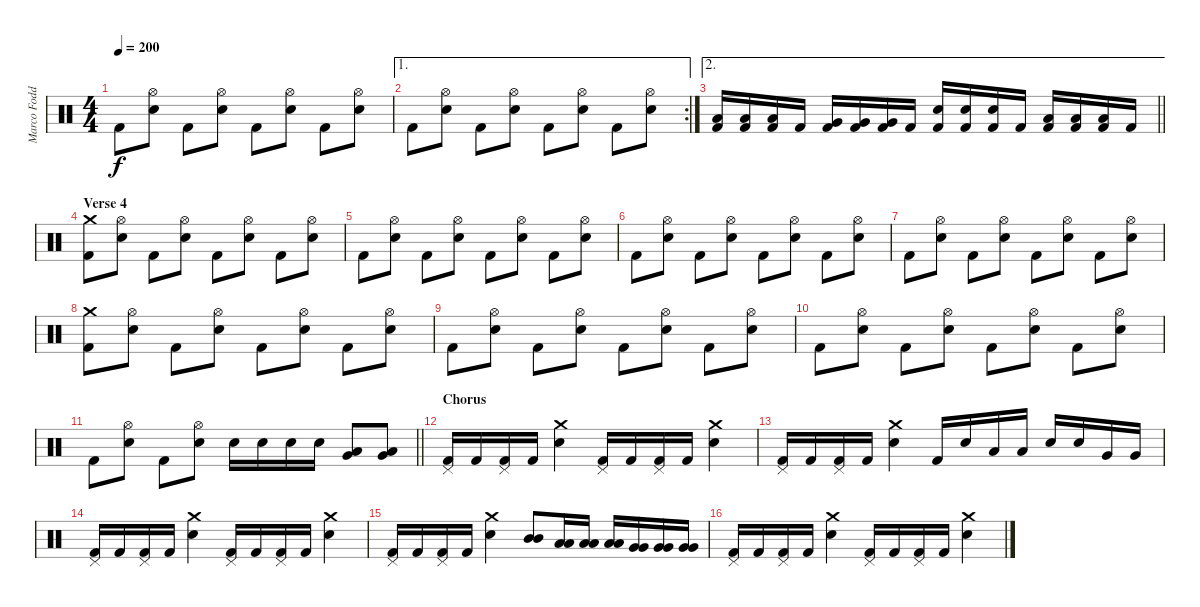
\track ("Marco Foddis " "Marco Fodd") {instrument percussion}
\staff {score}
\articulation defaults
\ts (4 4)
\tempo 200
\clef neutral
\ks c "Kick (hit) 2".8{dy f}
("Hi-Hat (open)" "Electric Snare (hit)").8 "Kick (hit) 2".8 ("Hi-Hat (open)" "Electric Snare (hit)").8 "Kick (hit) 2".8 ("Hi-Hat (open)" "Electric Snare (hit)").8 "Kick (hit) 2".8 ("Hi-Hat (open)" "Electric Snare (hit)").8 |
\ae 1
\rc 2 "Kick (hit) 2".8
("Hi-Hat (open)" "Electric Snare (hit)").8 "Kick (hit) 2".8 ("Hi-Hat (open)" "Electric Snare (hit)").8 "Kick (hit) 2".8 ("Hi-Hat (open)" "Electric Snare (hit)").8 "Kick (hit) 2".8 ("Hi-Hat (open)" "Electric Snare (hit)").8 |
\ae 2
\barLineRight lightlight
("Low Tom (hit)" "Kick (hit) 2").16 ("Low Tom (hit)" "Kick (hit) 2").16 ("Low Tom (hit)" "Kick (hit) 2").16 "Kick (hit) 2".16 ("Very Low Tom (hit)" "Kick (hit) 2").16 ("Very Low Tom (hit)" "Kick (hit) 2").16 ("Very Low Tom (hit)" "Kick (hit) 2").16 "Kick (hit) 2".16 ("Electric Snare (hit)" "Kick (hit) 2").16 ("Electric Snare (hit)" "Kick (hit) 2").16 ("Electric Snare (hit)" "Kick (hit) 2").16 "Kick (hit) 2".16 ("Low Floor Tom (hit)" "Kick (hit) 2").16 ("Low Floor Tom (hit)" "Kick (hit) 2").16 ("Low Floor Tom (hit)" "Kick (hit) 2").16 "Kick (hit) 2".16 |
\section ("" "Verse 4")
("Crash medium (hit)" "Kick (hit) 2").8 ("Hi-Hat (open)" "Electric Snare (hit)").8 "Kick (hit) 2".8 ("Hi-Hat (open)" "Electric Snare (hit)").8 "Kick (hit) 2".8 ("Hi-Hat (open)" "Electric Snare (hit)").8 "Kick (hit) 2".8 ("Hi-Hat (open)" "Electric Snare (hit)").8 |
"Kick (hit) 2".8 ("Hi-Hat (open)" "Electric Snare (hit)").8 "Kick (hit) 2".8 ("Hi-Hat (open)" "Electric Snare (hit)").8 "Kick (hit) 2".8 ("Hi-Hat (open)" "Electric Snare (hit)").8 "Kick (hit) 2".8 ("Hi-Hat (open)" "Electric Snare (hit)").8 |
"Kick (hit) 2".8 ("Hi-Hat (open)" "Electric Snare (hit)").8 "Kick (hit) 2".8 ("Hi-Hat (open)" "Electric Snare (hit)").8 "Kick (hit) 2".8 ("Hi-Hat (open)" "Electric Snare (hit)").8 "Kick (hit) 2".8 ("Hi-Hat (open)" "Electric Snare (hit)").8 |
"Kick (hit) 2".8 ("Hi-Hat (open)" "Electric Snare (hit)").8 "Kick (hit) 2".8 ("Hi-Hat (open)" "Electric Snare (hit)").8 "Kick (hit) 2".8 ("Hi-Hat (open)" "Electric Snare (hit)").8 "Kick (hit) 2".8 ("Hi-Hat (open)" "Electric Snare (hit)").8 |
("Crash medium (hit)" "Kick (hit) 2").8 ("Hi-Hat (open)" "Electric Snare (hit)").8 "Kick (hit) 2".8 ("Hi-Hat (open)" "Electric Snare (hit)").8 "Kick (hit) 2".8 ("Hi-Hat (open)" "Electric Snare (hit)").8 "Kick (hit) 2".8 ("Hi-Hat (open)" "Electric Snare (hit)").8 |
"Kick (hit) 2".8 ("Hi-Hat (open)" "Electric Snare (hit)").8 "Kick (hit) 2".8 ("Hi-Hat (open)" "Electric Snare (hit)").8 "Kick (hit) 2".8 ("Hi-Hat (open)" "Electric Snare (hit)").8 "Kick (hit) 2".8 ("Hi-Hat (open)" "Electric Snare (hit)").8 |
"Kick (hit) 2".8 ("Hi-Hat (open)" "Electric Snare (hit)").8 "Kick (hit) 2".8 ("Hi-Hat (open)" "Electric Snare (hit)").8 "Kick (hit) 2".8 ("Hi-Hat (open)" "Electric Snare (hit)").8 "Kick (hit) 2".8 ("Hi-Hat (open)" "Electric Snare (hit)").8 |
\barLineRight lightlight "Kick (hit) 2".8
("Hi-Hat (open)" "Electric Snare (hit)").8 "Kick (hit) 2".8 ("Hi-Hat (open)" "Electric Snare (hit)").8 "Electric Snare (hit)".16 "Electric Snare (hit)".16 "Electric Snare (hit)".16 "Electric Snare (hit)".16 ("Low Tom (hit)" "Very Low Tom (hit)").8 ("Low Tom (hit)" "Very Low Tom (hit)").8 |
\section ("" "Chorus")
("Pedal Hi-Hat (hit)" "Kick (hit) 2").16 "Kick (hit) 2".16 ("Pedal Hi-Hat (hit)" "Kick (hit) 2").16 "Kick (hit) 2".16 ("Crash medium (hit)" "Electric Snare (hit)").4 ("Pedal Hi-Hat (hit)" "Kick (hit) 2").16 "Kick (hit) 2".16 ("Pedal Hi-Hat (hit)" "Kick (hit) 2").16 "Kick (hit) 2".16 ("Crash medium (hit)" "Electric Snare (hit)").4 |
("Pedal Hi-Hat (hit)" "Kick (hit) 2").16 "Kick (hit) 2".16 ("Pedal Hi-Hat (hit)" "Kick (hit) 2").16 "Kick (hit) 2".16 ("Crash medium (hit)" "Electric Snare (hit)").4 "Kick (hit) 2".16 "Electric Snare (hit)".16 "Low Tom (hit)".16 "Low Tom (hit)".16 "Electric Snare (hit)".16 "Electric Snare (hit)".16 "Very Low Tom (hit)".16 "Very Low Tom (hit)".16 |
("Pedal Hi-Hat (hit)" "Kick (hit) 2").16 "Kick (hit) 2".16 ("Pedal Hi-Hat (hit)" "Kick (hit) 2").16 "Kick (hit) 2".16 ("Crash medium (hit)" "Electric Snare (hit)").4 ("Pedal Hi-Hat (hit)" "Kick (hit) 2").16 "Kick (hit) 2".16 ("Pedal Hi-Hat (hit)" "Kick (hit) 2").16 "Kick (hit) 2".16 ("Crash medium (hit)" "Electric Snare (hit)").4 |
("Pedal Hi-Hat (hit)" "Kick (hit) 2").16 "Kick (hit) 2".16 ("Pedal Hi-Hat (hit)" "Kick (hit) 2").16 "Kick (hit) 2".16 ("Crash medium (hit)" "Electric Snare (hit)").4 ("Mid Tom (hit)" "Mid Tom (hit)").8 ("Low Tom (hit)" "Low Tom (hit)").16 ("Low Tom (hit)" "Low Tom (hit)").16 ("Low Tom (hit)" "Low Tom (hit)").16 ("Very Low Tom (hit)" "Very Low Tom (hit)").16 ("Very Low Tom (hit)" "Very Low Tom (hit)").16 ("Very Low Tom (hit)" "Very Low Tom (hit)").16 |
("Pedal Hi-Hat (hit)" "Kick (hit) 2").16 "Kick (hit) 2".16 ("Pedal Hi-Hat (hit)" "Kick (hit) 2").16 "Kick (hit) 2".16 ("Crash medium (hit)" "Electric Snare (hit)").4 ("Pedal Hi-Hat (hit)" "Kick (hit) 2").16 "Kick (hit) 2".16 ("Pedal Hi-Hat (hit)" "Kick (hit) 2").16 "Kick (hit) 2".16 ("Crash medium (hit)" "Electric Snare (hit)").4
